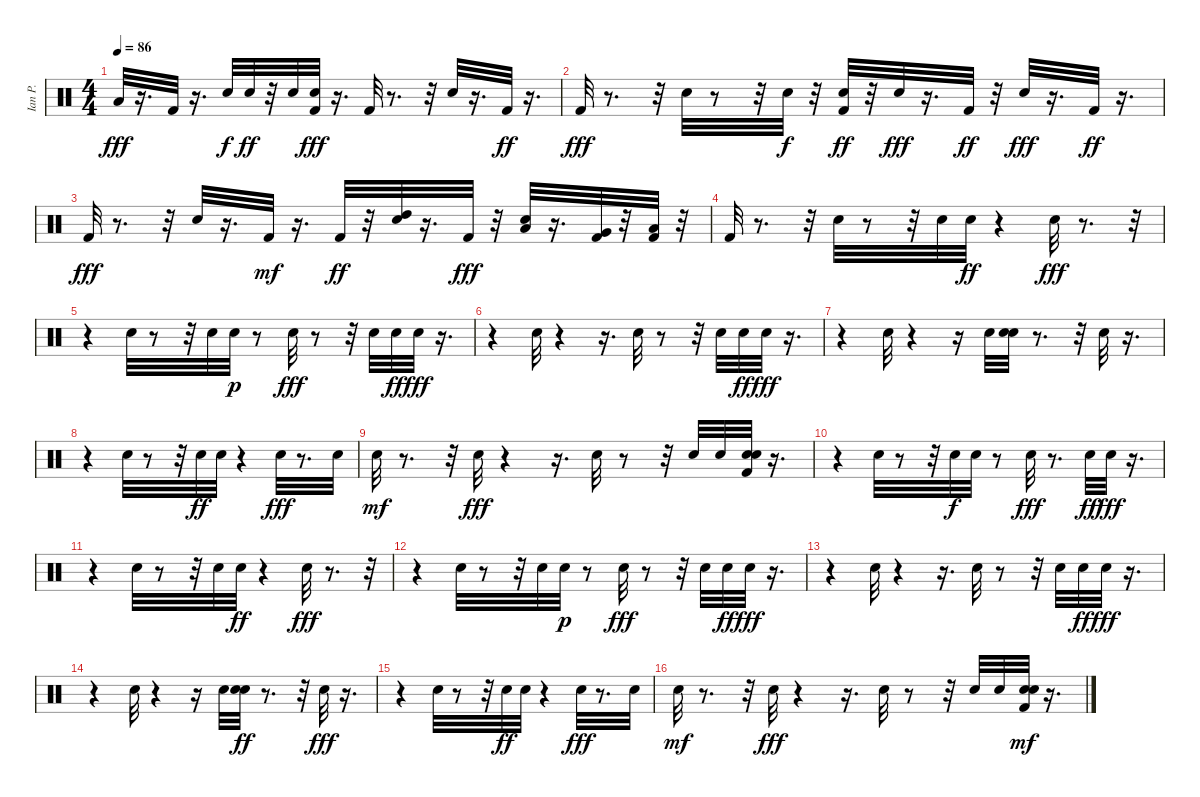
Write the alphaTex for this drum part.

\track ("Ian P." "Ian P.") {instrument percussion}
\staff {score}
\articulation defaults
\ts (4 4)
\tempo 86
\clef neutral
\ks c "Low Floor Tom (hit)".32{dy fff}
r.16{d} "Kick (hit) 2".32 r.16{d} "Snare (hit) 2".32{dy f} "Snare (hit) 2".32{dy ff} r.32 "Snare (hit) 2".32 ("Snare (hit) 2" "Kick (hit) 2").32{dy fff} r.16{d} "Kick (hit) 2".32 r.8{d} r.32 "Snare (hit) 2".32 r.16{d} "Kick (hit) 2".32{dy ff} r.16{d} |
"Kick (hit) 2".32{dy fff} r.8{d} r.32 "Snare (hit) 2".32 r.8 r.32 "Snare (hit) 2".32{dy f} r.32 ("Kick (hit) 2" "Snare (hit) 2").32{dy ff} r.32 "Snare (hit) 2".32{dy fff} r.16{d} "Kick (hit) 2".32{dy ff} r.32 "Snare (hit) 2".32{dy fff} r.16{d} "Kick (hit) 2".32{dy ff} r.16{d} |
"Kick (hit) 2".32{dy fff} r.8{d} r.32 "Snare (hit) 2".32 r.16{d} "Kick (hit) 2".32{dy mf} r.16{d} "Kick (hit) 2".32{dy ff} r.32 ("High Tom (hit)" "Snare (hit) 2").32 r.16{d} "Kick (hit) 2".32{dy fff} r.32 ("Low Tom (hit)" "Snare (hit) 2").32 r.16{d} ("Very Low Tom (hit)" "Kick (hit) 2").32 r.32 ("Kick (hit) 2" "Low Floor Tom (hit)").32 r.32 |
"Kick (hit) 2".32{volume 16 balance 8} r.8{d} r.32 "Snare (hit) 2".32 r.8 r.32 "Snare (hit) 2".32 "Snare (hit) 2".32{dy ff} r.4 "Snare (hit) 2".32{dy fff} r.8{d} r.32 |
r.4 "Snare (hit) 2".32 r.8 r.32 "Snare (hit) 2".32 "Snare (hit) 2".32{dy p} r.8 "Snare (hit) 2".32{dy fff} r.8 r.32 "Snare (hit) 2".32 "Snare (hit) 2".32{dy ff} "Snare (hit) 2".32{dy fff} r.16{d} |
r.4 "Snare (hit) 2".32 r.4 r.16{d} "Snare (hit) 2".32 r.8 r.32 "Snare (hit) 2".32 "Snare (hit) 2".32{dy ff} "Snare (hit) 2".32{dy fff} r.16{d} |
r.4 "Snare (hit) 2".32 r.4 r.16 "Snare (hit) 2".32 ("Snare (hit) 2" "Snare (hit) 2").32 r.8{d} r.32 "Snare (hit) 2".32 r.16{d} |
r.4 "Snare (hit) 2".32 r.8 r.32 "Snare (hit) 2".32{dy ff} "Snare (hit) 2".32 r.4 "Snare (hit) 2".32{dy fff} r.8{d} "Snare (hit) 2".32 |
"Snare (hit) 2".32{dy mf} r.8{d} r.32 "Snare (hit) 2".32{dy fff} r.4 r.16{d} "Snare (hit) 2".32 r.8 r.32 "Snare (hit) 2".32 "Snare (hit) 2".32 ("Snare (hit) 2" "Kick (hit) 2" "Snare (hit) 2").32 r.16{d} |
r.4 "Snare (hit) 2".32 r.8 r.32 "Snare (hit) 2".32{dy f} "Snare (hit) 2".32 r.8 "Snare (hit) 2".32{dy fff} r.8{d} "Snare (hit) 2".32{dy ff} "Snare (hit) 2".32{dy fff} r.16{d} |
r.4 "Snare (hit) 2".32 r.8 r.32 "Snare (hit) 2".32 "Snare (hit) 2".32{dy ff} r.4 "Snare (hit) 2".32{dy fff} r.8{d} r.32 |
r.4 "Snare (hit) 2".32 r.8 r.32 "Snare (hit) 2".32 "Snare (hit) 2".32{dy p} r.8 "Snare (hit) 2".32{dy fff} r.8 r.32 "Snare (hit) 2".32 "Snare (hit) 2".32{dy ff} "Snare (hit) 2".32{dy fff} r.16{d} |
r.4 "Snare (hit) 2".32 r.4 r.16{d} "Snare (hit) 2".32 r.8 r.32 "Snare (hit) 2".32 "Snare (hit) 2".32{dy ff} "Snare (hit) 2".32{dy fff} r.16{d} |
r.4 "Snare (hit) 2".32 r.4 r.16 "Snare (hit) 2".32 ("Snare (hit) 2" "Snare (hit) 2").32{dy ff} r.8{d} r.32 "Snare (hit) 2".32{dy fff} r.16{d} |
r.4 "Snare (hit) 2".32 r.8 r.32 "Snare (hit) 2".32{dy ff} "Snare (hit) 2".32 r.4 "Snare (hit) 2".32{dy fff} r.8{d} "Snare (hit) 2".32 |
"Snare (hit) 2".32{dy mf} r.8{d} r.32 "Snare (hit) 2".32{dy fff} r.4 r.16{d} "Snare (hit) 2".32 r.8 r.32 "Snare (hit) 2".32 "Snare (hit) 2".32 ("Snare (hit) 2" "Kick (hit) 2" "Snare (hit) 2").32{dy mf} r.16{d}
